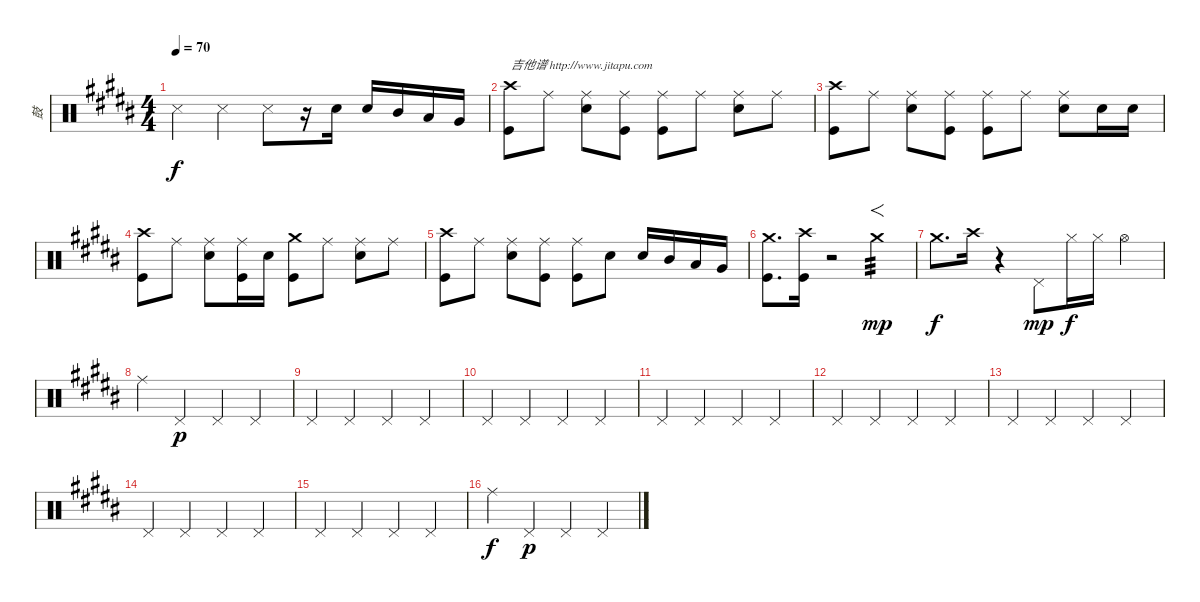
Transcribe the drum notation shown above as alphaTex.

\track ("鼓" "鼓") {instrument percussion}
\staff {score}
\articulation defaults
\ts (4 4)
\tempo 70
\clef neutral
\ks b "Snare (side stick) 3".4{dy f} "Snare (side stick) 3".4 "Snare (side stick) 3".8
r.16 "Electric Snare (hit)".16 "Electric Snare (hit)".16 "Mid Tom (hit)".16 "Low Tom (hit)".16 "Very Low Tom (hit)".16 |
("Crash high (hit)" "Kick (hit)").8{txt "吉他谱 http://www.jitapu.com"} "Ride (middle)".8 ("Ride (middle)" "Electric Snare (hit)").8 ("Ride (middle)" "Kick (hit)").8 ("Ride (middle)" "Kick (hit)").8 "Ride (middle)".8 ("Ride (middle)" "Electric Snare (hit)").8 "Ride (middle)".8 |
("Crash high (hit)" "Kick (hit)").8 "Ride (middle)".8 ("Ride (middle)" "Electric Snare (hit)").8 ("Ride (middle)" "Kick (hit)").8 ("Ride (middle)" "Kick (hit)").8 "Ride (middle)".8 ("Ride (middle)" "Electric Snare (hit)").8 "Electric Snare (hit)".16 "Electric Snare (hit)".16 |
("Crash high (hit)" "Kick (hit)").8 "Ride (middle)".8 ("Ride (middle)" "Electric Snare (hit)").8 ("Ride (middle)" "Kick (hit)").16 "Electric Snare (hit)".16 ("Crash medium (hit)" "Kick (hit)").8 "Ride (middle)".8 ("Ride (middle)" "Electric Snare (hit)").8 "Ride (middle)".8 |
("Crash high (hit)" "Kick (hit)").8 "Ride (middle)".8 ("Ride (middle)" "Electric Snare (hit)").8 ("Ride (middle)" "Kick (hit)").8 ("Ride (middle)" "Kick (hit)").8 "Electric Snare (hit)".8 "Electric Snare (hit)".16 "Mid Tom (hit)".16 "Low Tom (hit)".16 "Very Low Tom (hit)".16 |
("Crash medium (hit)" "Kick (hit)").8{d} ("Crash high (hit)" "Kick (hit)").16 r.2 "Crash medium (hit)".4{f tp 3 dy mp} |
"Crash medium (hit)".8{d dy f} "Crash high (hit)".16 r.4 "Pedal Hi-Hat (hit)".8{dy mp} "Hi-Hat (closed)".16{dy f} "Hi-Hat (closed)".16 "Hi-Hat (open)".4 |
"Ride (middle)".4 "Pedal Hi-Hat (hit)".4{dy p} "Pedal Hi-Hat (hit)".4 "Pedal Hi-Hat (hit)".4 |
"Pedal Hi-Hat (hit)".4 "Pedal Hi-Hat (hit)".4 "Pedal Hi-Hat (hit)".4 "Pedal Hi-Hat (hit)".4 |
"Pedal Hi-Hat (hit)".4 "Pedal Hi-Hat (hit)".4 "Pedal Hi-Hat (hit)".4 "Pedal Hi-Hat (hit)".4 |
"Pedal Hi-Hat (hit)".4 "Pedal Hi-Hat (hit)".4 "Pedal Hi-Hat (hit)".4 "Pedal Hi-Hat (hit)".4 |
"Pedal Hi-Hat (hit)".4 "Pedal Hi-Hat (hit)".4 "Pedal Hi-Hat (hit)".4 "Pedal Hi-Hat (hit)".4 |
"Pedal Hi-Hat (hit)".4 "Pedal Hi-Hat (hit)".4 "Pedal Hi-Hat (hit)".4 "Pedal Hi-Hat (hit)".4 |
"Pedal Hi-Hat (hit)".4 "Pedal Hi-Hat (hit)".4 "Pedal Hi-Hat (hit)".4 "Pedal Hi-Hat (hit)".4 |
"Pedal Hi-Hat (hit)".4 "Pedal Hi-Hat (hit)".4 "Pedal Hi-Hat (hit)".4 "Pedal Hi-Hat (hit)".4 |
"Ride (middle)".4{dy f} "Pedal Hi-Hat (hit)".4{dy p} "Pedal Hi-Hat (hit)".4 "Pedal Hi-Hat (hit)".4
